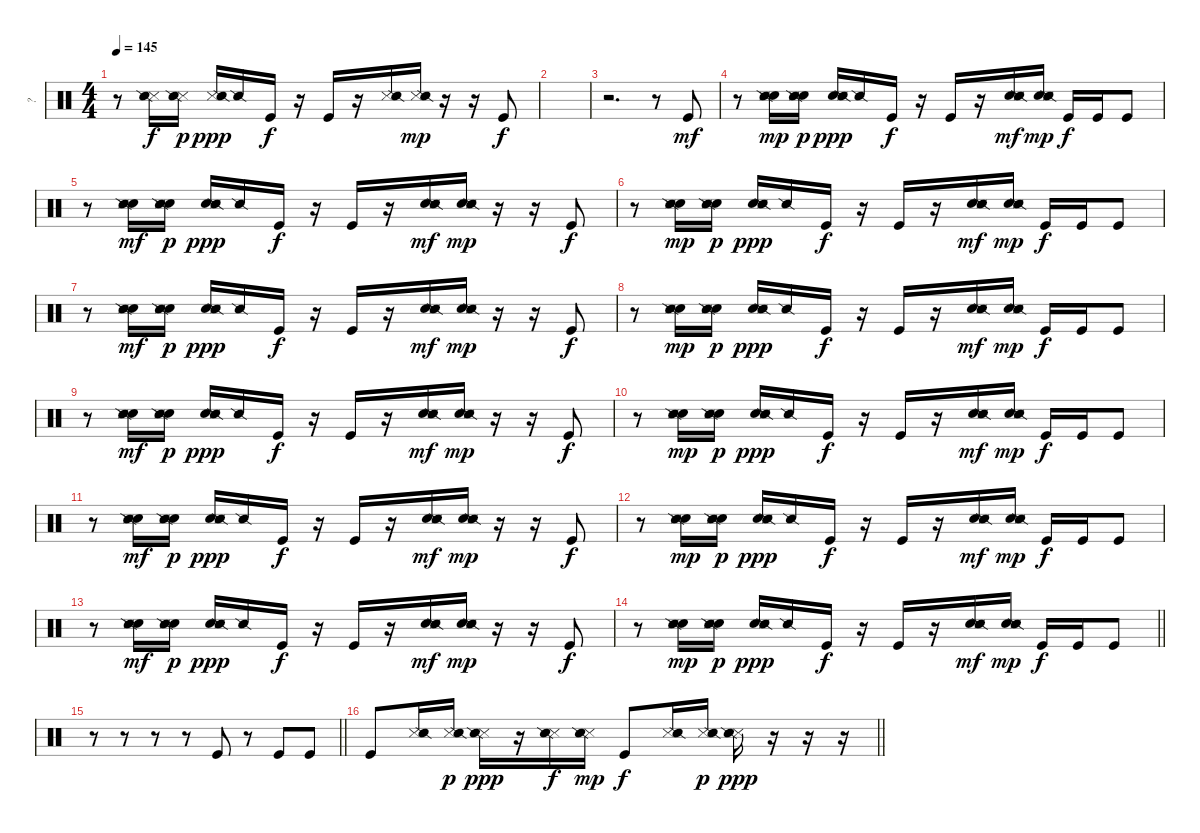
\track ("?" "?") {instrument percussion}
\staff {score}
\articulation defaults
\ts (4 4)
\section ("" "")
\tempo 145
\clef neutral
\ks c
r.8{dy f} ("Snare (side stick) 3" "Snare (side stick) 2").16 ("Snare (side stick) 3" "Snare (side stick) 2").16{dy p} ("Snare (side stick) 3" "Snare (side stick) 2").16{dy ppp} "Snare (side stick) 2".16 "Kick (hit)".16{dy f} r.16 "Kick (hit)".16 r.16 ("Snare (side stick) 3" "Snare (side stick) 2").16 ("Snare (side stick) 3" "Snare (side stick) 2").16{dy mp} r.16 r.16 "Kick (hit)".8{dy f} |
|
r.2{d} r.8 "Kick (hit)".8{dy mf} |
r.8 ("Snare (hit) 2" "Snare (side stick) 3" "Snare (side stick) 2").16{dy mp} ("Snare (hit) 2" "Snare (side stick) 3" "Snare (side stick) 2").16{dy p} ("Snare (hit) 2" "Snare (side stick) 3" "Snare (side stick) 2").16{dy ppp} "Snare (side stick) 2".16 "Kick (hit)".16{dy f} r.16 "Kick (hit)".16 r.16 ("Snare (hit) 2" "Snare (side stick) 3" "Snare (side stick) 2").16{dy mf} ("Snare (hit) 2" "Snare (side stick) 3" "Snare (side stick) 2").16{dy mp} "Kick (hit)".16{dy f} "Kick (hit)".16 "Kick (hit)".8 |
r.8 ("Snare (hit) 2" "Snare (side stick) 3" "Snare (side stick) 2").16{dy mf} ("Snare (hit) 2" "Snare (side stick) 3" "Snare (side stick) 2").16{dy p} ("Snare (hit) 2" "Snare (side stick) 3" "Snare (side stick) 2").16{dy ppp} "Snare (side stick) 2".16 "Kick (hit)".16{dy f} r.16 "Kick (hit)".16 r.16 ("Snare (hit) 2" "Snare (side stick) 3" "Snare (side stick) 2").16{dy mf} ("Snare (hit) 2" "Snare (side stick) 3" "Snare (side stick) 2").16{dy mp} r.16 r.16 "Kick (hit)".8{dy f} |
r.8 ("Snare (hit) 2" "Snare (side stick) 3" "Snare (side stick) 2").16{dy mp} ("Snare (hit) 2" "Snare (side stick) 3" "Snare (side stick) 2").16{dy p} ("Snare (hit) 2" "Snare (side stick) 3" "Snare (side stick) 2").16{dy ppp} "Snare (side stick) 2".16 "Kick (hit)".16{dy f} r.16 "Kick (hit)".16 r.16 ("Snare (hit) 2" "Snare (side stick) 3" "Snare (side stick) 2").16{dy mf} ("Snare (hit) 2" "Snare (side stick) 3" "Snare (side stick) 2").16{dy mp} "Kick (hit)".16{dy f} "Kick (hit)".16 "Kick (hit)".8 |
r.8 ("Snare (hit) 2" "Snare (side stick) 3" "Snare (side stick) 2").16{dy mf} ("Snare (hit) 2" "Snare (side stick) 3" "Snare (side stick) 2").16{dy p} ("Snare (hit) 2" "Snare (side stick) 3" "Snare (side stick) 2").16{dy ppp} "Snare (side stick) 2".16 "Kick (hit)".16{dy f} r.16 "Kick (hit)".16 r.16 ("Snare (hit) 2" "Snare (side stick) 3" "Snare (side stick) 2").16{dy mf} ("Snare (hit) 2" "Snare (side stick) 3" "Snare (side stick) 2").16{dy mp} r.16 r.16 "Kick (hit)".8{dy f} |
r.8 ("Snare (hit) 2" "Snare (side stick) 3" "Snare (side stick) 2").16{dy mp} ("Snare (hit) 2" "Snare (side stick) 3" "Snare (side stick) 2").16{dy p} ("Snare (hit) 2" "Snare (side stick) 3" "Snare (side stick) 2").16{dy ppp} "Snare (side stick) 2".16 "Kick (hit)".16{dy f} r.16 "Kick (hit)".16 r.16 ("Snare (hit) 2" "Snare (side stick) 3" "Snare (side stick) 2").16{dy mf} ("Snare (hit) 2" "Snare (side stick) 3" "Snare (side stick) 2").16{dy mp} "Kick (hit)".16{dy f} "Kick (hit)".16 "Kick (hit)".8 |
r.8 ("Snare (hit) 2" "Snare (side stick) 3" "Snare (side stick) 2").16{dy mf} ("Snare (hit) 2" "Snare (side stick) 3" "Snare (side stick) 2").16{dy p} ("Snare (hit) 2" "Snare (side stick) 3" "Snare (side stick) 2").16{dy ppp} "Snare (side stick) 2".16 "Kick (hit)".16{dy f} r.16 "Kick (hit)".16 r.16 ("Snare (hit) 2" "Snare (side stick) 3" "Snare (side stick) 2").16{dy mf} ("Snare (hit) 2" "Snare (side stick) 3" "Snare (side stick) 2").16{dy mp} r.16 r.16 "Kick (hit)".8{dy f} |
r.8 ("Snare (hit) 2" "Snare (side stick) 3" "Snare (side stick) 2").16{dy mp} ("Snare (hit) 2" "Snare (side stick) 3" "Snare (side stick) 2").16{dy p} ("Snare (hit) 2" "Snare (side stick) 3" "Snare (side stick) 2").16{dy ppp} "Snare (side stick) 2".16 "Kick (hit)".16{dy f} r.16 "Kick (hit)".16 r.16 ("Snare (hit) 2" "Snare (side stick) 3" "Snare (side stick) 2").16{dy mf} ("Snare (hit) 2" "Snare (side stick) 3" "Snare (side stick) 2").16{dy mp} "Kick (hit)".16{dy f} "Kick (hit)".16 "Kick (hit)".8 |
r.8 ("Snare (hit) 2" "Snare (side stick) 3" "Snare (side stick) 2").16{dy mf} ("Snare (hit) 2" "Snare (side stick) 3" "Snare (side stick) 2").16{dy p} ("Snare (hit) 2" "Snare (side stick) 3" "Snare (side stick) 2").16{dy ppp} "Snare (side stick) 2".16 "Kick (hit)".16{dy f} r.16 "Kick (hit)".16 r.16 ("Snare (hit) 2" "Snare (side stick) 3" "Snare (side stick) 2").16{dy mf} ("Snare (hit) 2" "Snare (side stick) 3" "Snare (side stick) 2").16{dy mp} r.16 r.16 "Kick (hit)".8{dy f} |
r.8 ("Snare (hit) 2" "Snare (side stick) 3" "Snare (side stick) 2").16{dy mp} ("Snare (hit) 2" "Snare (side stick) 3" "Snare (side stick) 2").16{dy p} ("Snare (hit) 2" "Snare (side stick) 3" "Snare (side stick) 2").16{dy ppp} "Snare (side stick) 2".16 "Kick (hit)".16{dy f} r.16 "Kick (hit)".16 r.16 ("Snare (hit) 2" "Snare (side stick) 3" "Snare (side stick) 2").16{dy mf} ("Snare (hit) 2" "Snare (side stick) 3" "Snare (side stick) 2").16{dy mp} "Kick (hit)".16{dy f} "Kick (hit)".16 "Kick (hit)".8 |
r.8 ("Snare (hit) 2" "Snare (side stick) 3" "Snare (side stick) 2").16{dy mf} ("Snare (hit) 2" "Snare (side stick) 3" "Snare (side stick) 2").16{dy p} ("Snare (hit) 2" "Snare (side stick) 3" "Snare (side stick) 2").16{dy ppp} "Snare (side stick) 2".16 "Kick (hit)".16{dy f} r.16 "Kick (hit)".16 r.16 ("Snare (hit) 2" "Snare (side stick) 3" "Snare (side stick) 2").16{dy mf} ("Snare (hit) 2" "Snare (side stick) 3" "Snare (side stick) 2").16{dy mp} r.16 r.16 "Kick (hit)".8{dy f} |
\barLineRight lightlight
r.8 ("Snare (hit) 2" "Snare (side stick) 3" "Snare (side stick) 2").16{dy mp} ("Snare (hit) 2" "Snare (side stick) 3" "Snare (side stick) 2").16{dy p} ("Snare (hit) 2" "Snare (side stick) 3" "Snare (side stick) 2").16{dy ppp} "Snare (side stick) 2".16 "Kick (hit)".16{dy f} r.16 "Kick (hit)".16 r.16 ("Snare (hit) 2" "Snare (side stick) 3" "Snare (side stick) 2").16{dy mf} ("Snare (hit) 2" "Snare (side stick) 3" "Snare (side stick) 2").16{dy mp} "Kick (hit)".16{dy f} "Kick (hit)".16 "Kick (hit)".8 |
\barLineRight lightlight
r.8 r.8 r.8 r.8 "Kick (hit)".8 r.8 "Kick (hit)".8 "Kick (hit)".8 |
\barLineRight lightlight "Kick (hit)".8
("Snare (side stick) 3" "Snare (side stick) 2").16 ("Snare (side stick) 3" "Snare (side stick) 2").16{dy p} ("Snare (side stick) 3" "Snare (side stick) 2").16{dy ppp} r.16 ("Snare (side stick) 3" "Snare (side stick) 2").16{dy f} ("Snare (side stick) 3" "Snare (side stick) 2").16{dy mp} "Kick (hit)".8{dy f} ("Snare (side stick) 3" "Snare (side stick) 2").16 ("Snare (side stick) 3" "Snare (side stick) 2").16{dy p} ("Snare (side stick) 3" "Snare (side stick) 2").16{dy ppp} r.16 r.16 r.16
